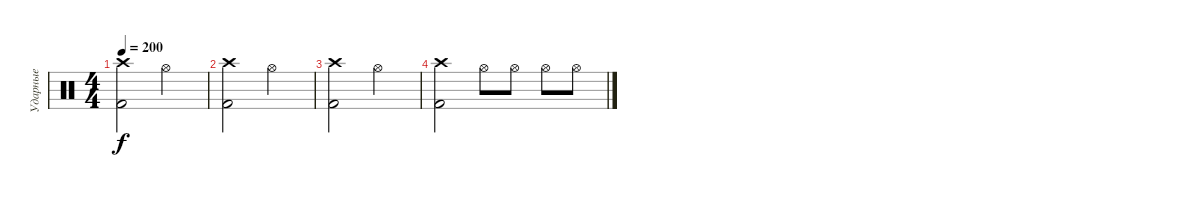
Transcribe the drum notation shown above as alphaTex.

\track ("Ударные" "Ударные") {instrument percussion}
\staff {score}
\articulation defaults
\ts (4 4)
\tempo 200
\clef neutral
\ks c
("Crash high (hit)" "Kick (hit) 2").2{dy f} "Hi-Hat (open)".2 |
("Crash high (hit)" "Kick (hit) 2").2 "Hi-Hat (open)".2 |
("Crash high (hit)" "Kick (hit) 2").2 "Hi-Hat (open)".2 |
("Crash high (hit)" "Kick (hit) 2").2 "Hi-Hat (open)".8 "Hi-Hat (open)".8 "Hi-Hat (open)".8 "Hi-Hat (open)".8
